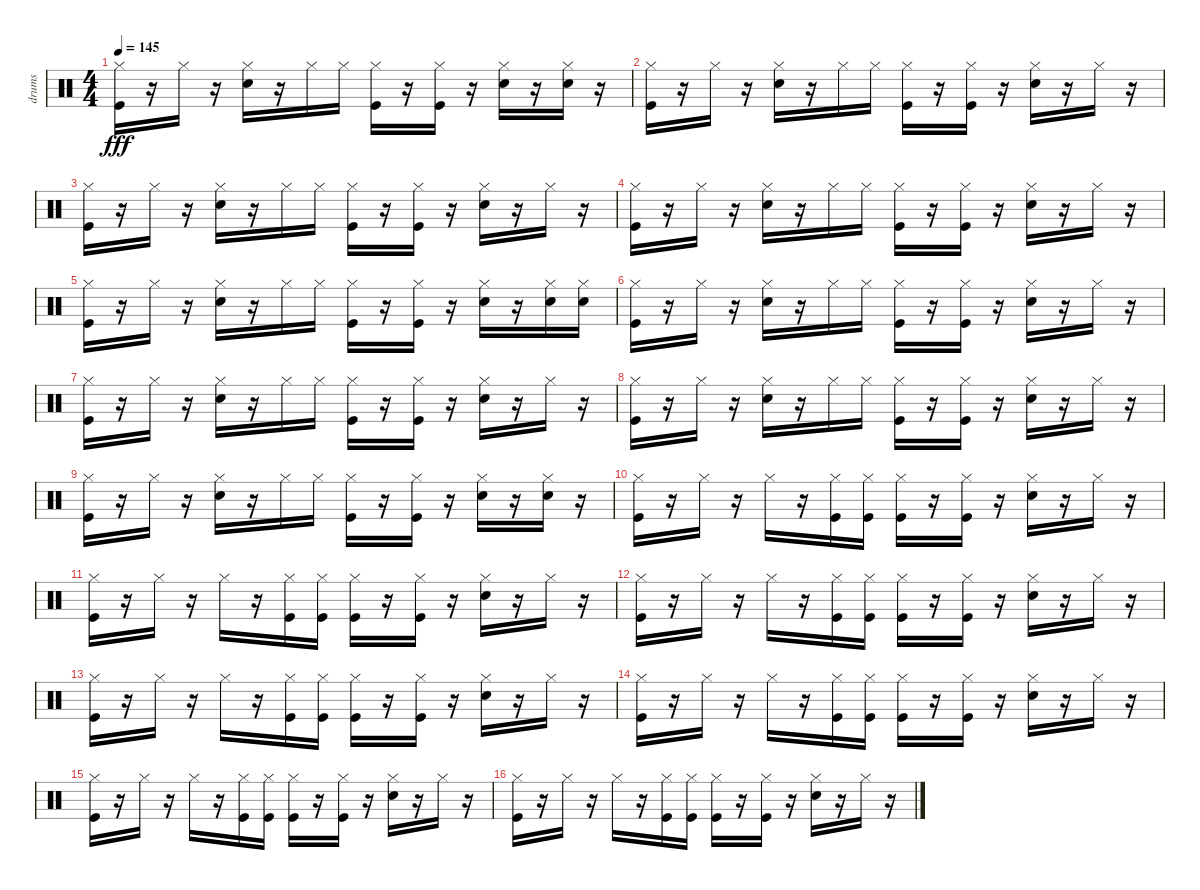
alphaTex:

\track ("drums" "drums") {instrument percussion}
\staff {score}
\articulation defaults
\ts (4 4)
\tempo 145
\clef neutral
\ks c
("Kick (hit)" "Hi-Hat (closed)").16{dy fff} r.16 "Hi-Hat (closed)".16 r.16 ("Snare (hit) 2" "Hi-Hat (closed)").16 r.16 "Hi-Hat (closed)".16 "Hi-Hat (closed)".16 ("Kick (hit)" "Hi-Hat (closed)").16 r.16 ("Kick (hit)" "Hi-Hat (closed)").16 r.16 ("Snare (hit) 2" "Hi-Hat (closed)").16 r.16 ("Snare (hit) 2" "Hi-Hat (closed)").16 r.16 |
("Kick (hit)" "Hi-Hat (closed)").16 r.16 "Hi-Hat (closed)".16 r.16 ("Snare (hit) 2" "Hi-Hat (closed)").16 r.16 "Hi-Hat (closed)".16 "Hi-Hat (closed)".16 ("Kick (hit)" "Hi-Hat (closed)").16 r.16 ("Kick (hit)" "Hi-Hat (closed)").16 r.16 ("Snare (hit) 2" "Hi-Hat (closed)").16 r.16 "Hi-Hat (closed)".16 r.16 |
("Kick (hit)" "Hi-Hat (closed)").16 r.16 "Hi-Hat (closed)".16 r.16 ("Snare (hit) 2" "Hi-Hat (closed)").16 r.16 "Hi-Hat (closed)".16 "Hi-Hat (closed)".16 ("Kick (hit)" "Hi-Hat (closed)").16 r.16 ("Kick (hit)" "Hi-Hat (closed)").16 r.16 ("Snare (hit) 2" "Hi-Hat (closed)").16 r.16 "Hi-Hat (closed)".16 r.16 |
("Kick (hit)" "Hi-Hat (closed)").16 r.16 "Hi-Hat (closed)".16 r.16 ("Snare (hit) 2" "Hi-Hat (closed)").16 r.16 "Hi-Hat (closed)".16 "Hi-Hat (closed)".16 ("Kick (hit)" "Hi-Hat (closed)").16 r.16 ("Kick (hit)" "Hi-Hat (closed)").16 r.16 ("Snare (hit) 2" "Hi-Hat (closed)").16 r.16 "Hi-Hat (closed)".16 r.16 |
("Kick (hit)" "Hi-Hat (closed)").16 r.16 "Hi-Hat (closed)".16 r.16 ("Snare (hit) 2" "Hi-Hat (closed)").16 r.16 "Hi-Hat (closed)".16 "Hi-Hat (closed)".16 ("Kick (hit)" "Hi-Hat (closed)").16 r.16 ("Kick (hit)" "Hi-Hat (closed)").16 r.16 ("Snare (hit) 2" "Hi-Hat (closed)").16 r.16 ("Snare (hit) 2" "Hi-Hat (closed)").16 ("Snare (hit) 2" "Hi-Hat (closed)").16 |
("Kick (hit)" "Hi-Hat (closed)").16 r.16 "Hi-Hat (closed)".16 r.16 ("Snare (hit) 2" "Hi-Hat (closed)").16 r.16 "Hi-Hat (closed)".16 "Hi-Hat (closed)".16 ("Kick (hit)" "Hi-Hat (closed)").16 r.16 ("Kick (hit)" "Hi-Hat (closed)").16 r.16 ("Snare (hit) 2" "Hi-Hat (closed)").16 r.16 "Hi-Hat (closed)".16 r.16 |
("Kick (hit)" "Hi-Hat (closed)").16 r.16 "Hi-Hat (closed)".16 r.16 ("Snare (hit) 2" "Hi-Hat (closed)").16 r.16 "Hi-Hat (closed)".16 "Hi-Hat (closed)".16 ("Kick (hit)" "Hi-Hat (closed)").16 r.16 ("Kick (hit)" "Hi-Hat (closed)").16 r.16 ("Snare (hit) 2" "Hi-Hat (closed)").16 r.16 "Hi-Hat (closed)".16 r.16 |
("Kick (hit)" "Hi-Hat (closed)").16 r.16 "Hi-Hat (closed)".16 r.16 ("Snare (hit) 2" "Hi-Hat (closed)").16 r.16 "Hi-Hat (closed)".16 "Hi-Hat (closed)".16 ("Kick (hit)" "Hi-Hat (closed)").16 r.16 ("Kick (hit)" "Hi-Hat (closed)").16 r.16 ("Snare (hit) 2" "Hi-Hat (closed)").16 r.16 "Hi-Hat (closed)".16 r.16 |
("Kick (hit)" "Hi-Hat (closed)").16 r.16 "Hi-Hat (closed)".16 r.16 ("Snare (hit) 2" "Hi-Hat (closed)").16 r.16 "Hi-Hat (closed)".16 "Hi-Hat (closed)".16 ("Kick (hit)" "Hi-Hat (closed)").16 r.16 ("Kick (hit)" "Hi-Hat (closed)").16 r.16 ("Snare (hit) 2" "Hi-Hat (closed)").16 r.16 ("Snare (hit) 2" "Hi-Hat (closed)").16 r.16 |
("Kick (hit)" "Hi-Hat (closed)").16 r.16 "Hi-Hat (closed)".16 r.16 "Hi-Hat (closed)".16 r.16 ("Kick (hit)" "Hi-Hat (closed)").16 ("Kick (hit)" "Hi-Hat (closed)").16 ("Kick (hit)" "Hi-Hat (closed)").16 r.16 ("Kick (hit)" "Hi-Hat (closed)").16 r.16 ("Snare (hit) 2" "Hi-Hat (closed)").16 r.16 "Hi-Hat (closed)".16 r.16 |
("Kick (hit)" "Hi-Hat (closed)").16 r.16 "Hi-Hat (closed)".16 r.16 "Hi-Hat (closed)".16 r.16 ("Kick (hit)" "Hi-Hat (closed)").16 ("Kick (hit)" "Hi-Hat (closed)").16 ("Kick (hit)" "Hi-Hat (closed)").16 r.16 ("Kick (hit)" "Hi-Hat (closed)").16 r.16 ("Snare (hit) 2" "Hi-Hat (closed)").16 r.16 "Hi-Hat (closed)".16 r.16 |
("Kick (hit)" "Hi-Hat (closed)").16 r.16 "Hi-Hat (closed)".16 r.16 "Hi-Hat (closed)".16 r.16 ("Kick (hit)" "Hi-Hat (closed)").16 ("Kick (hit)" "Hi-Hat (closed)").16 ("Kick (hit)" "Hi-Hat (closed)").16 r.16 ("Kick (hit)" "Hi-Hat (closed)").16 r.16 ("Snare (hit) 2" "Hi-Hat (closed)").16 r.16 "Hi-Hat (closed)".16 r.16 |
("Kick (hit)" "Hi-Hat (closed)").16 r.16 "Hi-Hat (closed)".16 r.16 "Hi-Hat (closed)".16 r.16 ("Kick (hit)" "Hi-Hat (closed)").16 ("Kick (hit)" "Hi-Hat (closed)").16 ("Kick (hit)" "Hi-Hat (closed)").16 r.16 ("Kick (hit)" "Hi-Hat (closed)").16 r.16 ("Snare (hit) 2" "Hi-Hat (closed)").16 r.16 "Hi-Hat (closed)".16 r.16 |
("Kick (hit)" "Hi-Hat (closed)").16 r.16 "Hi-Hat (closed)".16 r.16 "Hi-Hat (closed)".16 r.16 ("Kick (hit)" "Hi-Hat (closed)").16 ("Kick (hit)" "Hi-Hat (closed)").16 ("Kick (hit)" "Hi-Hat (closed)").16 r.16 ("Kick (hit)" "Hi-Hat (closed)").16 r.16 ("Snare (hit) 2" "Hi-Hat (closed)").16 r.16 "Hi-Hat (closed)".16 r.16 |
("Kick (hit)" "Hi-Hat (closed)").16 r.16 "Hi-Hat (closed)".16 r.16 "Hi-Hat (closed)".16 r.16 ("Kick (hit)" "Hi-Hat (closed)").16 ("Kick (hit)" "Hi-Hat (closed)").16 ("Kick (hit)" "Hi-Hat (closed)").16 r.16 ("Kick (hit)" "Hi-Hat (closed)").16 r.16 ("Snare (hit) 2" "Hi-Hat (closed)").16 r.16 "Hi-Hat (closed)".16 r.16 |
("Kick (hit)" "Hi-Hat (closed)").16 r.16 "Hi-Hat (closed)".16 r.16 "Hi-Hat (closed)".16 r.16 ("Kick (hit)" "Hi-Hat (closed)").16 ("Kick (hit)" "Hi-Hat (closed)").16 ("Kick (hit)" "Hi-Hat (closed)").16 r.16 ("Kick (hit)" "Hi-Hat (closed)").16 r.16 ("Snare (hit) 2" "Hi-Hat (closed)").16 r.16 "Hi-Hat (closed)".16 r.16
